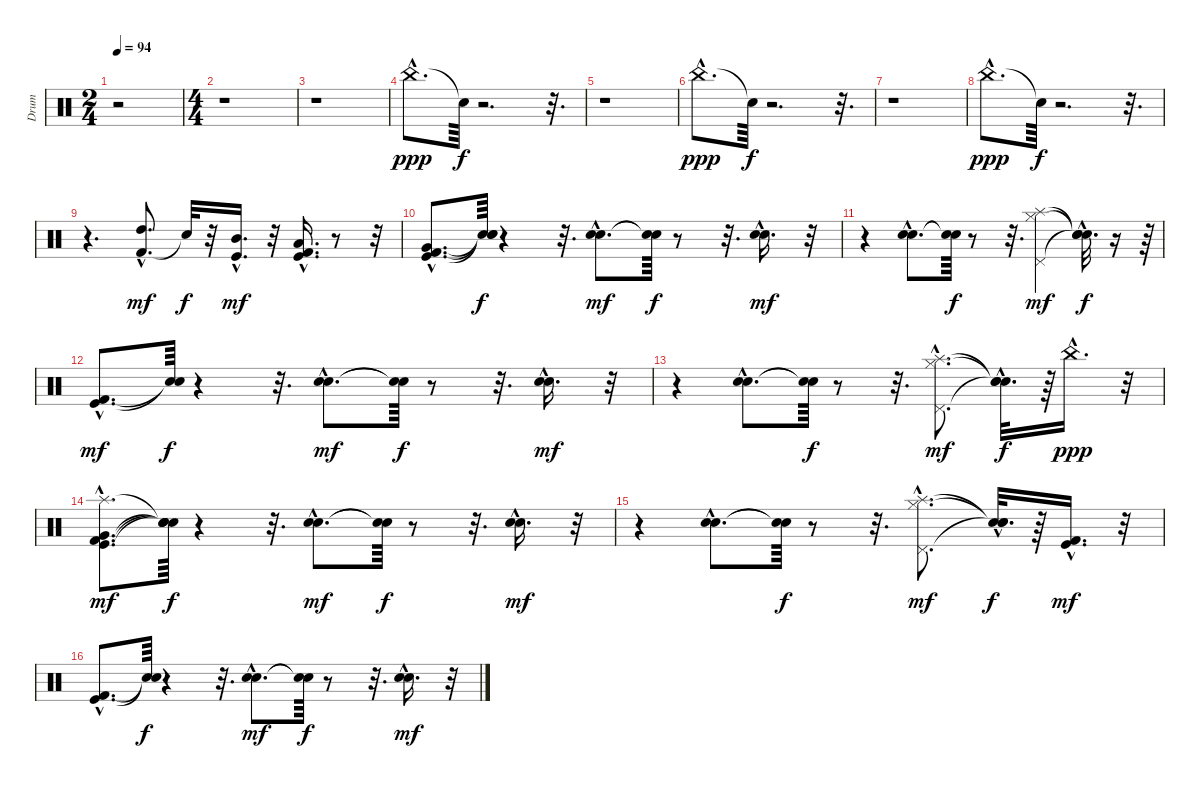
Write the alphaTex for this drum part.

\track ("Drum" "Drum") {instrument percussion}
\staff {score}
\articulation defaults
\ts (2 4)
\tempo 94
\clef neutral
\ks c
r.2{dy ppp} |
\ts (4 4)
r.1 |
r.1 |
"China (hit)"{hac}.8{d} "Snare (hit)"{t}.64{dy f} r.2{d} r.32{d} |
r.1 |
"China (hit)"{hac}.8{d dy ppp} "Snare (hit)"{t}.64{dy f} r.2{d} r.32{d} |
r.1 |
"China (hit)"{hac}.8{d dy ppp} "Snare (hit)"{t}.64{dy f} r.2{d} r.32{d} |
r.4{d} ("Kick (hit) 2"{hac} "High Tom (hit)"{hac}).8{d dy mf} "Snare (hit)"{t}.32{dy f} r.32 ("Kick (hit)"{hac} "Mid Tom (hit)"{hac}).16{d dy mf} r.32 ("Kick (hit) 2"{hac} "Kick (hit)"{hac} "Low Tom (hit)"{hac}).16{d} r.8 r.32 |
("Kick (hit)"{hac} "Very Low Tom (hit)"{hac} "Kick (hit) 2"{hac}).8{d} ("Snare (hit)"{t} "Snare (hit)"{t} "Snare (hit)"{t}).64{dy f} r.4 r.32{d} ("Electric Snare (hit)"{hac} "Snare (hit) 2"{hac}).8{d dy mf} ("Snare (hit)"{t} "Snare (hit)"{t}).64{dy f} r.8 r.32{d} ("Electric Snare (hit)"{hac} "Snare (hit) 2"{hac}).16{d dy mf} r.32 |
r.4 ("Electric Snare (hit)"{hac} "Snare (hit) 2"{hac}).8{d} ("Snare (hit)"{t} "Snare (hit)"{t}).64{dy f} r.8 r.32{d} ("Pedal Hi-Hat (hit)" "Hi-Hat (closed)" "Splash (hit)").4{dy mf} ("Snare (hit)"{hac t} "Snare (hit)"{hac t} "Snare (hit)"{hac t}).32{d dy f} r.16 r.64 |
("Kick (hit)"{hac} "Kick (hit) 2"{hac}).8{d dy mf} ("Snare (hit)"{t} "Snare (hit)"{t}).64{dy f} r.4 r.32{d} ("Snare (hit) 2"{hac} "Electric Snare (hit)"{hac}).8{d dy mf} ("Snare (hit)"{t} "Snare (hit)"{t}).64{dy f} r.8 r.32{d} ("Snare (hit) 2"{hac} "Electric Snare (hit)"{hac}).16{d dy mf} r.32 |
r.4 ("Electric Snare (hit)"{hac} "Snare (hit) 2"{hac}).8{d} ("Snare (hit)"{t} "Snare (hit)"{t}).64{dy f} r.8 r.32{d} ("Pedal Hi-Hat (hit)"{hac} "Splash (hit)"{hac} "Hi-Hat (closed)"{hac}).8{d dy mf} ("Snare (hit)"{hac t} "Snare (hit)"{hac t} "Snare (hit)"{hac t}).32{d dy f} r.64 "China (hit)"{hac}.16{d dy ppp} r.32 |
("Very Low Tom (hit)"{hac} "Kick (hit) 2"{hac} "Splash (hit)"{hac} "Kick (hit)"{hac}).8{d dy mf} ("Snare (hit)"{t} "Snare (hit)"{t} "Snare (hit)"{t} "Snare (hit)"{t}).64{dy f} r.4 r.32{d} ("Electric Snare (hit)"{hac} "Snare (hit) 2"{hac}).8{d dy mf} ("Snare (hit)"{t} "Snare (hit)"{t}).64{dy f} r.8 r.32{d} ("Electric Snare (hit)"{hac} "Snare (hit) 2"{hac}).16{d dy mf} r.32 |
r.4 ("Electric Snare (hit)"{hac} "Snare (hit) 2"{hac}).8{d} ("Snare (hit)"{t} "Snare (hit)"{t}).64{dy f} r.8 r.32{d} ("Pedal Hi-Hat (hit)"{hac} "Splash (hit)"{hac} "Hi-Hat (closed)"{hac}).8{d dy mf} ("Snare (hit)"{hac t} "Snare (hit)"{hac t} "Snare (hit)"{hac t}).32{d dy f} r.64 ("Kick (hit) 2"{hac} "Kick (hit)"{hac}).16{d dy mf} r.32 |
("Kick (hit) 2"{hac} "Kick (hit)"{hac}).8{d} ("Snare (hit)"{t} "Snare (hit)"{t}).64{dy f} r.4 r.32{d} ("Electric Snare (hit)"{hac} "Snare (hit) 2"{hac}).8{d dy mf} ("Snare (hit)"{t} "Snare (hit)"{t}).64{dy f} r.8 r.32{d} ("Electric Snare (hit)"{hac} "Snare (hit) 2"{hac}).16{d dy mf} r.32
